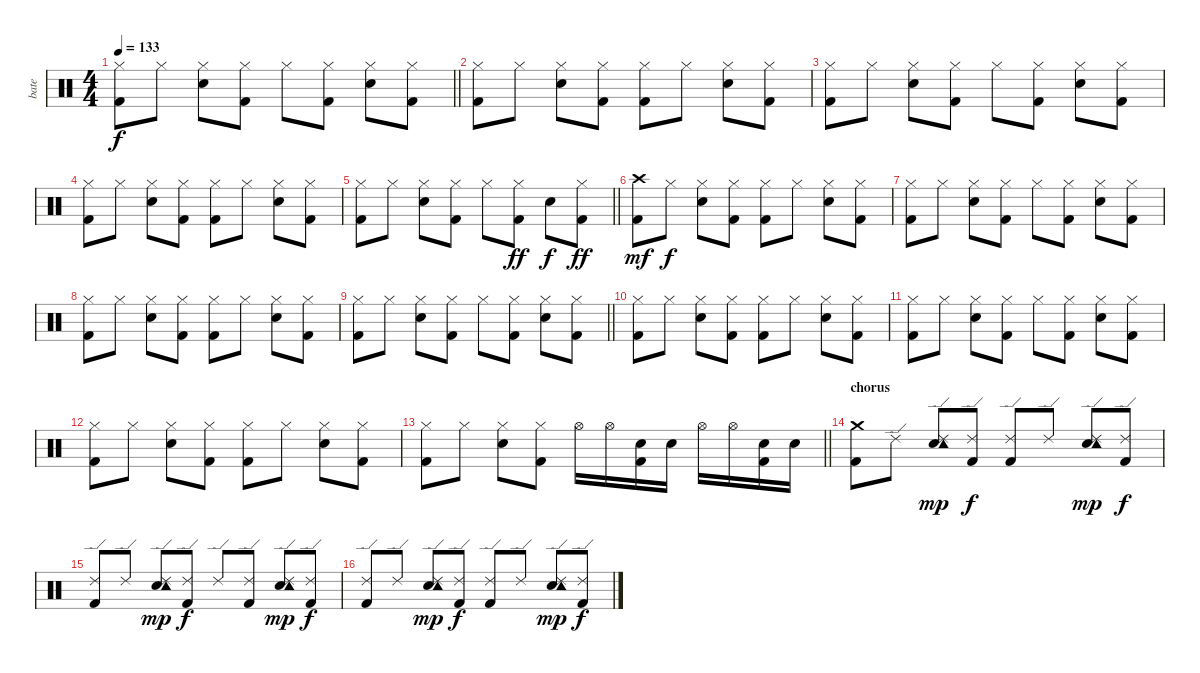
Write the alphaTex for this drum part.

\track ("bate" "bate") {instrument percussion}
\staff {score}
\articulation defaults
\ts (4 4)
\tempo 133
\clef neutral
\barLineRight lightlight
\ks c
("Hi-Hat (closed)" "Kick (hit) 2").8{dy f} "Hi-Hat (closed)".8 ("Hi-Hat (closed)" "Snare (hit) 2").8 ("Hi-Hat (closed)" "Kick (hit) 2").8 "Hi-Hat (closed)".8 ("Hi-Hat (closed)" "Kick (hit) 2").8 ("Hi-Hat (closed)" "Snare (hit) 2").8 ("Hi-Hat (closed)" "Kick (hit) 2").8 |
("Hi-Hat (closed)" "Kick (hit) 2").8 "Hi-Hat (closed)".8 ("Hi-Hat (closed)" "Snare (hit) 2").8 ("Hi-Hat (closed)" "Kick (hit) 2").8 ("Hi-Hat (closed)" "Kick (hit) 2").8 "Hi-Hat (closed)".8 ("Hi-Hat (closed)" "Snare (hit) 2").8 ("Hi-Hat (closed)" "Kick (hit) 2").8 |
("Hi-Hat (closed)" "Kick (hit) 2").8 "Hi-Hat (closed)".8 ("Hi-Hat (closed)" "Snare (hit) 2").8 ("Hi-Hat (closed)" "Kick (hit) 2").8 "Hi-Hat (closed)".8 ("Hi-Hat (closed)" "Kick (hit) 2").8 ("Hi-Hat (closed)" "Snare (hit) 2").8 ("Hi-Hat (closed)" "Kick (hit) 2").8 |
("Hi-Hat (closed)" "Kick (hit) 2").8 "Hi-Hat (closed)".8 ("Hi-Hat (closed)" "Snare (hit) 2").8 ("Hi-Hat (closed)" "Kick (hit) 2").8 ("Hi-Hat (closed)" "Kick (hit) 2").8 "Hi-Hat (closed)".8 ("Hi-Hat (closed)" "Snare (hit) 2").8 ("Hi-Hat (closed)" "Kick (hit) 2").8 |
\barLineRight lightlight
("Hi-Hat (closed)" "Kick (hit) 2").8 "Hi-Hat (closed)".8 ("Hi-Hat (closed)" "Snare (hit) 2").8 ("Hi-Hat (closed)" "Kick (hit) 2").8 "Hi-Hat (closed)".8 ("Hi-Hat (closed)" "Kick (hit) 2").8{dy ff} "Snare (hit) 2".8{dy f} ("Hi-Hat (closed)" "Kick (hit) 2").8{dy ff} |
("Crash high (hit)" "Kick (hit) 2").8{dy mf} "Hi-Hat (closed)".8{dy f} ("Hi-Hat (closed)" "Snare (hit) 2").8 ("Hi-Hat (closed)" "Kick (hit) 2").8 ("Hi-Hat (closed)" "Kick (hit) 2").8 "Hi-Hat (closed)".8 ("Hi-Hat (closed)" "Snare (hit) 2").8 ("Hi-Hat (closed)" "Kick (hit) 2").8 |
("Hi-Hat (closed)" "Kick (hit) 2").8 "Hi-Hat (closed)".8 ("Hi-Hat (closed)" "Snare (hit) 2").8 ("Hi-Hat (closed)" "Kick (hit) 2").8 "Hi-Hat (closed)".8 ("Hi-Hat (closed)" "Kick (hit) 2").8 ("Hi-Hat (closed)" "Snare (hit) 2").8 ("Hi-Hat (closed)" "Kick (hit) 2").8 |
("Hi-Hat (closed)" "Kick (hit) 2").8 "Hi-Hat (closed)".8 ("Hi-Hat (closed)" "Snare (hit) 2").8 ("Hi-Hat (closed)" "Kick (hit) 2").8 ("Hi-Hat (closed)" "Kick (hit) 2").8 "Hi-Hat (closed)".8 ("Hi-Hat (closed)" "Snare (hit) 2").8 ("Hi-Hat (closed)" "Kick (hit) 2").8 |
\barLineRight lightlight
("Hi-Hat (closed)" "Kick (hit) 2").8 "Hi-Hat (closed)".8 ("Hi-Hat (closed)" "Snare (hit) 2").8 ("Hi-Hat (closed)" "Kick (hit) 2").8 "Hi-Hat (closed)".8 ("Hi-Hat (closed)" "Kick (hit) 2").8 ("Hi-Hat (closed)" "Snare (hit) 2").8 ("Hi-Hat (closed)" "Kick (hit) 2").8 |
("Hi-Hat (closed)" "Kick (hit) 2").8 "Hi-Hat (closed)".8 ("Hi-Hat (closed)" "Snare (hit) 2").8 ("Hi-Hat (closed)" "Kick (hit) 2").8 ("Hi-Hat (closed)" "Kick (hit) 2").8 "Hi-Hat (closed)".8 ("Hi-Hat (closed)" "Snare (hit) 2").8 ("Hi-Hat (closed)" "Kick (hit) 2").8 |
("Hi-Hat (closed)" "Kick (hit) 2").8 "Hi-Hat (closed)".8 ("Hi-Hat (closed)" "Snare (hit) 2").8 ("Hi-Hat (closed)" "Kick (hit) 2").8 "Hi-Hat (closed)".8 ("Hi-Hat (closed)" "Kick (hit) 2").8 ("Hi-Hat (closed)" "Snare (hit) 2").8 ("Hi-Hat (closed)" "Kick (hit) 2").8 |
("Hi-Hat (closed)" "Kick (hit) 2").8 "Hi-Hat (closed)".8 ("Hi-Hat (closed)" "Snare (hit) 2").8 ("Hi-Hat (closed)" "Kick (hit) 2").8 ("Hi-Hat (closed)" "Kick (hit) 2").8 "Hi-Hat (closed)".8 ("Hi-Hat (closed)" "Snare (hit) 2").8 ("Hi-Hat (closed)" "Kick (hit) 2").8 |
\barLineRight lightlight
("Hi-Hat (closed)" "Kick (hit) 2").8 "Hi-Hat (closed)".8 ("Hi-Hat (closed)" "Snare (hit) 2").8 ("Hi-Hat (closed)" "Kick (hit) 2").8 "Hi-Hat (open)".16 "Hi-Hat (open)".16 ("Snare (hit) 2" "Kick (hit) 2").16 "Snare (hit) 2".16 "Hi-Hat (open)".16 "Hi-Hat (open)".16 ("Snare (hit) 2" "Kick (hit) 2").16 "Snare (hit) 2".16 |
\section ("" "chorus")
("Crash medium (hit)" "Kick (hit) 2").8 "Ride (edge) 2".8 ("Ride (edge) 2" "Snare (hit) 2" "Tambourine (hit)").8{dy mp} ("Ride (edge) 2" "Kick (hit) 2").8{dy f} ("Ride (edge) 2" "Kick (hit) 2").8 "Ride (edge) 2".8 ("Ride (edge) 2" "Snare (hit) 2" "Tambourine (hit)").8{dy mp} ("Ride (edge) 2" "Kick (hit) 2").8{dy f} |
("Ride (edge) 2" "Kick (hit) 2").8 "Ride (edge) 2".8 ("Ride (edge) 2" "Snare (hit) 2" "Tambourine (hit)").8{dy mp} ("Ride (edge) 2" "Kick (hit) 2").8{dy f} "Ride (edge) 2".8 ("Ride (edge) 2" "Kick (hit) 2").8 ("Ride (edge) 2" "Snare (hit) 2" "Tambourine (hit)").8{dy mp} ("Ride (edge) 2" "Kick (hit) 2").8{dy f} |
("Ride (edge) 2" "Kick (hit) 2").8 "Ride (edge) 2".8 ("Ride (edge) 2" "Snare (hit) 2" "Tambourine (hit)").8{dy mp} ("Ride (edge) 2" "Kick (hit) 2").8{dy f} ("Ride (edge) 2" "Kick (hit) 2").8 "Ride (edge) 2".8 ("Ride (edge) 2" "Snare (hit) 2" "Tambourine (hit)").8{dy mp} ("Ride (edge) 2" "Kick (hit) 2").8{dy f}
